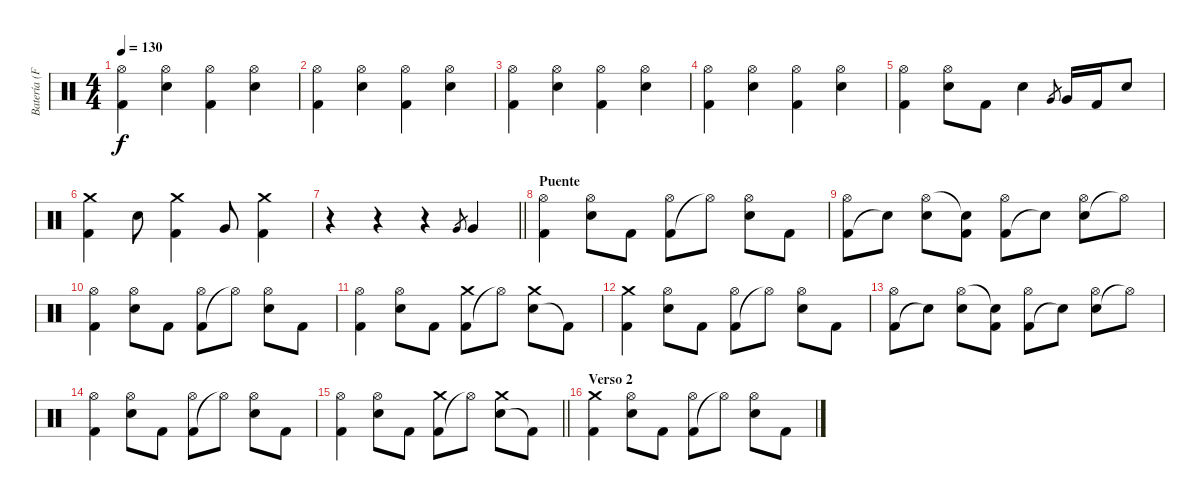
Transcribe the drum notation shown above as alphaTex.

\track ("Batería (F. Scarcella)" "Batería (F") {instrument percussion}
\staff {score}
\articulation defaults
\ts (4 4)
\tempo 130
\clef neutral
\ks c
("Kick (hit) 2" "Hi-Hat (open)").4{dy f} ("Snare (hit) 2" "Hi-Hat (open)").4 ("Kick (hit) 2" "Hi-Hat (open)").4 ("Snare (hit) 2" "Hi-Hat (open)").4 |
("Kick (hit) 2" "Hi-Hat (open)").4 ("Snare (hit) 2" "Hi-Hat (open)").4 ("Kick (hit) 2" "Hi-Hat (open)").4 ("Snare (hit) 2" "Hi-Hat (open)").4 |
("Kick (hit) 2" "Hi-Hat (open)").4 ("Snare (hit) 2" "Hi-Hat (open)").4 ("Kick (hit) 2" "Hi-Hat (open)").4 ("Snare (hit) 2" "Hi-Hat (open)").4 |
("Kick (hit) 2" "Hi-Hat (open)").4 ("Snare (hit) 2" "Hi-Hat (open)").4 ("Kick (hit) 2" "Hi-Hat (open)").4 ("Snare (hit) 2" "Hi-Hat (open)").4 |
("Kick (hit) 2" "Hi-Hat (open)").4 ("Snare (hit) 2" "Hi-Hat (open)").8 "Kick (hit) 2".8 "Snare (hit) 2".4 "Very Low Tom (hit)".8{gr} "Very Low Tom (hit)".16 "Kick (hit) 2".16 "Snare (hit) 2".8 |
("Kick (hit) 2" "Crash medium (hit)").4 "Snare (hit) 2".8 ("Kick (hit) 2" "Crash medium (hit)").4 "Very Low Tom (hit)".8 ("Kick (hit) 2" "Crash medium (hit)").4 |
\barLineRight lightlight
r.4 r.4 r.4 "Very Low Tom (hit)".8{gr} "Very Low Tom (hit)".4 |
\section ("" "Puente")
("Kick (hit) 2" "Hi-Hat (open)").4 ("Snare (hit) 2" "Hi-Hat (open)").8 "Kick (hit) 2".8 ("Kick (hit) 2" "Hi-Hat (open)").8 "Hi-Hat (open)"{t}.8 ("Snare (hit) 2" "Hi-Hat (open)").8 "Kick (hit) 2".8 |
("Kick (hit) 2" "Hi-Hat (open)").8 "Snare (hit)"{t}.8 ("Snare (hit) 2" "Hi-Hat (open)").8 ("Kick (hit) 2" "Snare (hit)"{t}).8 ("Kick (hit) 2" "Hi-Hat (open)").8 "Snare (hit)"{t}.8 ("Snare (hit) 2" "Hi-Hat (open)").8 "Hi-Hat (open)"{t}.8 |
("Kick (hit) 2" "Hi-Hat (open)").4 ("Snare (hit) 2" "Hi-Hat (open)").8 "Kick (hit) 2".8 ("Kick (hit) 2" "Hi-Hat (open)").8 "Hi-Hat (open)"{t}.8 ("Snare (hit) 2" "Hi-Hat (open)").8 "Kick (hit) 2".8 |
("Kick (hit) 2" "Hi-Hat (open)").4 ("Snare (hit) 2" "Hi-Hat (open)").8 "Kick (hit) 2".8 ("Kick (hit) 2" "Crash medium (hit)").8 "Hi-Hat (open)"{t}.8 ("Snare (hit) 2" "Crash medium (hit)").8 "Kick (hit) 2"{t}.8 |
("Kick (hit) 2" "Crash medium (hit)").4 ("Snare (hit) 2" "Hi-Hat (open)").8 "Kick (hit) 2".8 ("Kick (hit) 2" "Hi-Hat (open)").8 "Hi-Hat (open)"{t}.8 ("Snare (hit) 2" "Hi-Hat (open)").8 "Kick (hit) 2".8 |
("Kick (hit) 2" "Hi-Hat (open)").8 "Snare (hit)"{t}.8 ("Snare (hit) 2" "Hi-Hat (open)").8 ("Kick (hit) 2" "Snare (hit)"{t}).8 ("Kick (hit) 2" "Hi-Hat (open)").8 "Snare (hit)"{t}.8 ("Snare (hit) 2" "Hi-Hat (open)").8 "Hi-Hat (open)"{t}.8 |
("Kick (hit) 2" "Hi-Hat (open)").4 ("Snare (hit) 2" "Hi-Hat (open)").8 "Kick (hit) 2".8 ("Kick (hit) 2" "Hi-Hat (open)").8 "Hi-Hat (open)"{t}.8 ("Snare (hit) 2" "Hi-Hat (open)").8 "Kick (hit) 2".8 |
\barLineRight lightlight
("Kick (hit) 2" "Hi-Hat (open)").4 ("Snare (hit) 2" "Hi-Hat (open)").8 "Kick (hit) 2".8 ("Kick (hit) 2" "Crash medium (hit)").8 "Hi-Hat (open)"{t}.8 ("Snare (hit) 2" "Crash medium (hit)").8 "Kick (hit) 2"{t}.8 |
\section ("" "Verso 2")
("Kick (hit) 2" "Crash medium (hit)").4 ("Snare (hit) 2" "Hi-Hat (open)").8 "Kick (hit) 2".8 ("Kick (hit) 2" "Hi-Hat (open)").8 "Hi-Hat (open)"{t}.8 ("Snare (hit) 2" "Hi-Hat (open)").8 "Kick (hit) 2".8
